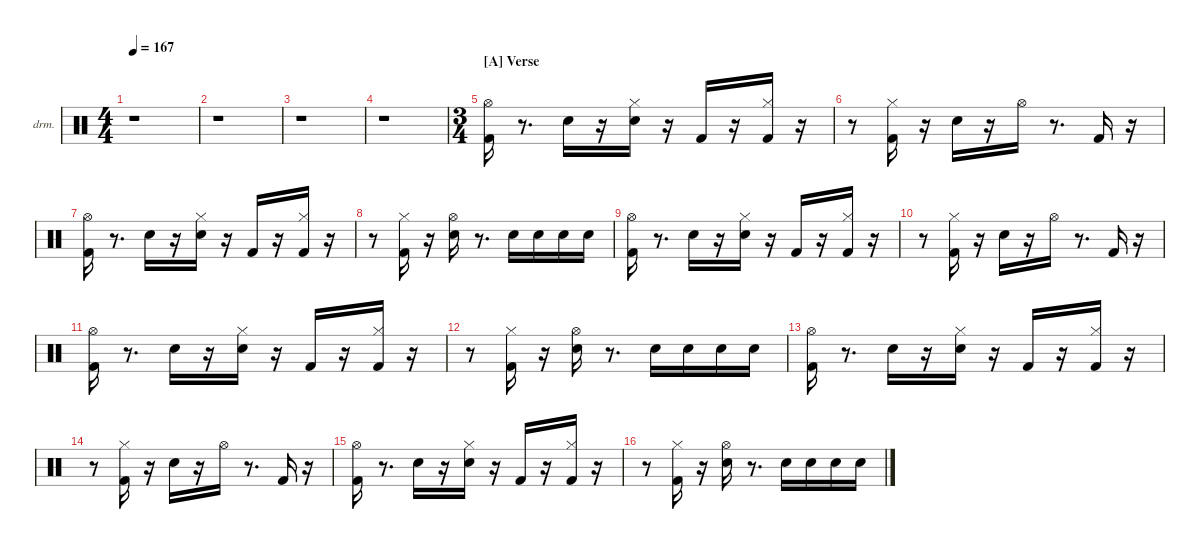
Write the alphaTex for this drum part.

\hideDynamics
\bracketExtendMode nobrackets
\firstSystemTrackNameOrientation horizontal
\otherSystemsTrackNameOrientation horizontal
\track ("Drums" "drm.") {instrument percussion}
\staff {score}
\articulation defaults
\ts (4 4)
\tempo 167
\clef neutral
\ks aminor
r.1{dy fff beam Down} |
r.1{beam Down} |
r.1{beam Down} |
r.1{beam Down} |
\ts (3 4)
\section ("A" "Verse")
("Kick (hit) 2" "Hi-Hat (open)"{acc #}).16{beam Down} r.8{d beam Down} "Snare (hit) 2".16{dy pp beam Down} r.16{beam Down} ("Snare (hit) 2" "Hi-Hat (closed)"{acc #}).16{dy ppp beam Down} r.16{beam Down} "Kick (hit) 2".16{dy mf beam Up} r.16{beam Up} ("Kick (hit) 2" "Hi-Hat (closed)"{acc #}).16{dy ff beam Down} r.16{beam Down} |
r.8{beam Down} ("Kick (hit) 2" "Hi-Hat (closed)"{acc #}).16{dy fff beam Down} r.16{beam Down} "Snare (hit) 2".16{dy ff beam Down} r.16{beam Down} "Hi-Hat (open)"{acc #}.16{dy f beam Down} r.8{d beam Down} "Kick (hit) 2".16{beam Up} r.16{beam Up} |
("Kick (hit) 2" "Hi-Hat (open)"{acc #}).16{dy ff beam Down} r.8{d beam Down} "Snare (hit) 2".16{dy pp beam Down} r.16{beam Down} ("Snare (hit) 2" "Hi-Hat (closed)"{acc #}).16{dy ppp beam Down} r.16{beam Down} "Kick (hit) 2".16{dy mf beam Up} r.16{beam Up} ("Kick (hit) 2" "Hi-Hat (closed)"{acc #}).16{dy ff beam Down} r.16{beam Down} |
r.8{beam Down} ("Kick (hit) 2" "Hi-Hat (closed)"{acc #}).16{dy fff beam Down} r.16{beam Down} ("Snare (hit) 2" "Hi-Hat (open)"{acc #}).16{beam Down} r.8{d beam Down} "Snare (hit) 2".16{dy p beam Down} "Snare (hit) 2".16{dy ppp beam Down} "Snare (hit) 2".16{dy p beam Down} "Snare (hit) 2".16{dy ppp beam Down} |
("Kick (hit) 2" "Hi-Hat (open)"{acc #}).16{dy ff beam Down} r.8{d beam Down} "Snare (hit) 2".16{dy pp beam Down} r.16{beam Down} ("Snare (hit) 2" "Hi-Hat (closed)"{acc #}).16{dy ppp beam Down} r.16{beam Down} "Kick (hit) 2".16{dy mf beam Up} r.16{beam Up} ("Kick (hit) 2" "Hi-Hat (closed)"{acc #}).16{dy ff beam Down} r.16{beam Down} |
r.8{beam Down} ("Kick (hit) 2" "Hi-Hat (closed)"{acc #}).16{dy fff beam Down} r.16{beam Down} "Snare (hit) 2".16{dy ff beam Down} r.16{beam Down} "Hi-Hat (open)"{acc #}.16{beam Down} r.8{d beam Down} "Kick (hit) 2".16{dy f beam Up} r.16{beam Up} |
("Kick (hit) 2" "Hi-Hat (open)"{acc #}).16{dy ff beam Down} r.8{d beam Down} "Snare (hit) 2".16{dy pp beam Down} r.16{beam Down} ("Snare (hit) 2" "Hi-Hat (closed)"{acc #}).16{dy ppp beam Down} r.16{beam Down} "Kick (hit) 2".16{dy mf beam Up} r.16{beam Up} ("Kick (hit) 2" "Hi-Hat (closed)"{acc #}).16{dy ff beam Down} r.16{beam Down} |
r.8{beam Down} ("Kick (hit) 2" "Hi-Hat (closed)"{acc #}).16{dy fff beam Down} r.16{beam Down} ("Snare (hit) 2" "Hi-Hat (open)"{acc #}).16{beam Down} r.8{d beam Down} "Snare (hit) 2".16{dy p beam Down} "Snare (hit) 2".16{dy ppp beam Down} "Snare (hit) 2".16{dy p beam Down} "Snare (hit) 2".16{dy ppp beam Down} |
("Kick (hit) 2" "Hi-Hat (open)"{acc #}).16{dy ff beam Down} r.8{d beam Down} "Snare (hit) 2".16{dy pp beam Down} r.16{beam Down} ("Snare (hit) 2" "Hi-Hat (closed)"{acc #}).16{dy ppp beam Down} r.16{beam Down} "Kick (hit) 2".16{dy mf beam Up} r.16{beam Up} ("Kick (hit) 2" "Hi-Hat (closed)"{acc #}).16{dy ff beam Down} r.16{beam Down} |
r.8{beam Down} ("Kick (hit) 2" "Hi-Hat (closed)"{acc #}).16{dy fff beam Down} r.16{beam Down} "Snare (hit) 2".16{dy ff beam Down} r.16{beam Down} "Hi-Hat (open)"{acc #}.16{beam Down} r.8{d beam Down} "Kick (hit) 2".16{dy f beam Up} r.16{beam Up} |
("Kick (hit) 2" "Hi-Hat (open)"{acc #}).16{dy ff beam Down} r.8{d beam Down} "Snare (hit) 2".16{dy pp beam Down} r.16{beam Down} ("Snare (hit) 2" "Hi-Hat (closed)"{acc #}).16{dy ppp beam Down} r.16{beam Down} "Kick (hit) 2".16{dy mf beam Up} r.16{beam Up} ("Kick (hit) 2" "Hi-Hat (closed)"{acc #}).16{dy ff beam Down} r.16{beam Down} |
r.8{beam Down} ("Kick (hit) 2" "Hi-Hat (closed)"{acc #}).16{dy fff beam Down} r.16{beam Down} ("Snare (hit) 2" "Hi-Hat (open)"{acc #}).16{beam Down} r.8{d beam Down} "Snare (hit) 2".16{dy p beam Down} "Snare (hit) 2".16{dy ppp beam Down} "Snare (hit) 2".16{dy p beam Down} "Snare (hit) 2".16{dy ppp beam Down}
